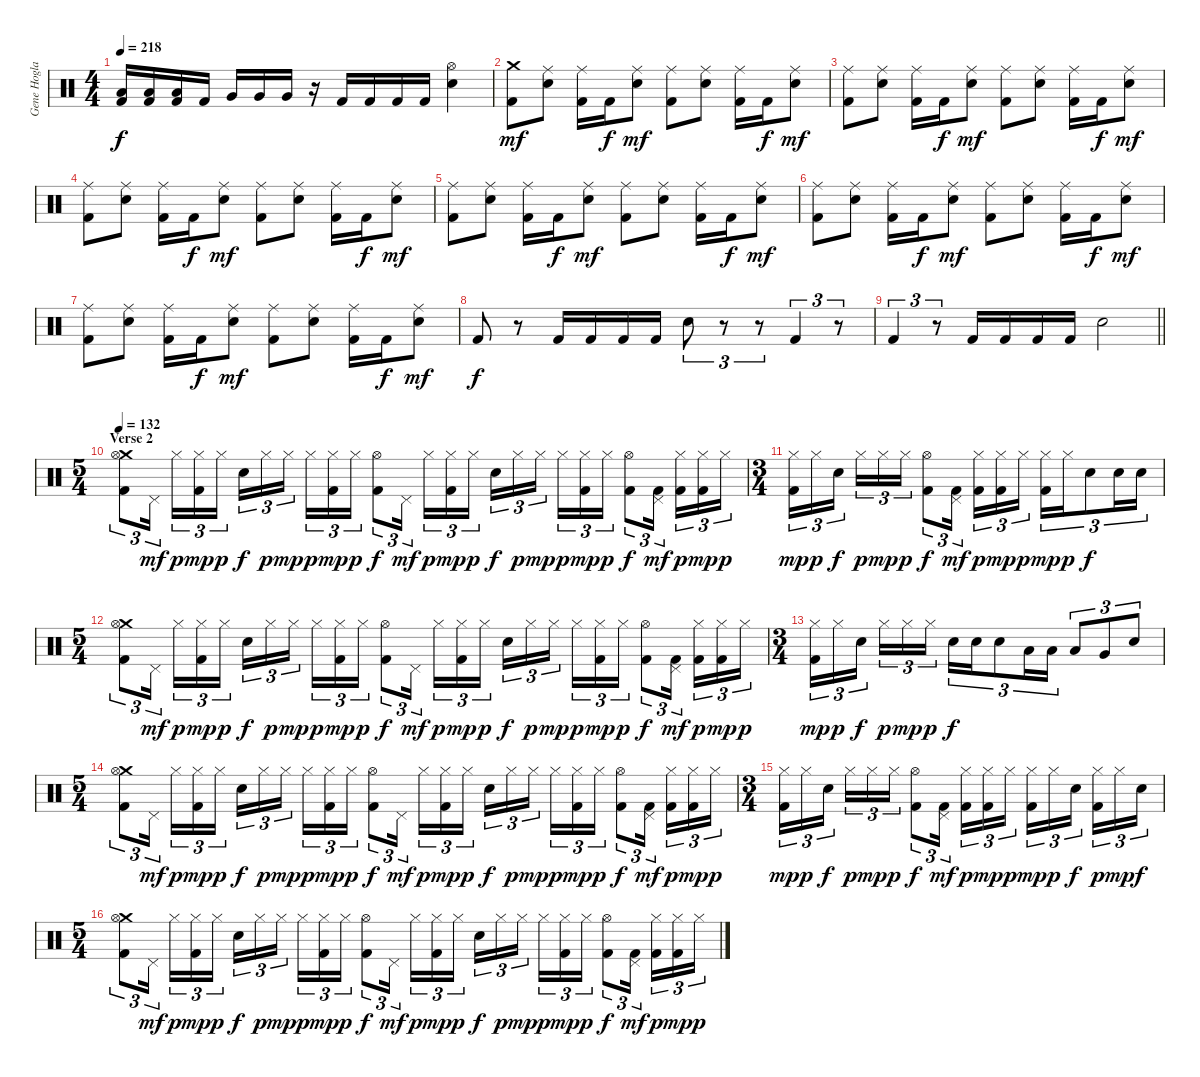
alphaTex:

\track ("Gene Hoglan" "Gene Hogla") {instrument percussion}
\staff {score}
\articulation defaults
\ts (4 4)
\tempo 218
\clef neutral
\ks c
("Low Tom (hit)" "Kick (hit) 2").16{dy f} ("Low Tom (hit)" "Kick (hit) 2").16 ("Low Tom (hit)" "Kick (hit) 2").16 "Kick (hit) 2".16 "Very Low Tom (hit)".16 "Very Low Tom (hit)".16 "Very Low Tom (hit)".16 r.16 "Kick (hit) 2".16 "Kick (hit) 2".16 "Kick (hit) 2".16 "Kick (hit) 2".16 ("Hi-Hat (open)" "Electric Snare (hit)").4 |
("Crash medium (hit)" "Kick (hit) 2").8{dy mf} ("Ride (middle)" "Electric Snare (hit)").8 ("Ride (middle)" "Kick (hit) 2").16 "Kick (hit) 2".16{dy f} ("Ride (middle)" "Electric Snare (hit)").8{dy mf} ("Ride (middle)" "Kick (hit) 2").8 ("Ride (middle)" "Electric Snare (hit)").8 ("Ride (middle)" "Kick (hit) 2").16 "Kick (hit) 2".16{dy f} ("Ride (middle)" "Electric Snare (hit)").8{dy mf} |
("Ride (middle)" "Kick (hit) 2").8 ("Ride (middle)" "Electric Snare (hit)").8 ("Ride (middle)" "Kick (hit) 2").16 "Kick (hit) 2".16{dy f} ("Ride (middle)" "Electric Snare (hit)").8{dy mf} ("Ride (middle)" "Kick (hit) 2").8 ("Ride (middle)" "Electric Snare (hit)").8 ("Ride (middle)" "Kick (hit) 2").16 "Kick (hit) 2".16{dy f} ("Ride (middle)" "Electric Snare (hit)").8{dy mf} |
("Ride (middle)" "Kick (hit) 2").8 ("Ride (middle)" "Electric Snare (hit)").8 ("Ride (middle)" "Kick (hit) 2").16 "Kick (hit) 2".16{dy f} ("Ride (middle)" "Electric Snare (hit)").8{dy mf} ("Ride (middle)" "Kick (hit) 2").8 ("Ride (middle)" "Electric Snare (hit)").8 ("Ride (middle)" "Kick (hit) 2").16 "Kick (hit) 2".16{dy f} ("Ride (middle)" "Electric Snare (hit)").8{dy mf} |
("Ride (middle)" "Kick (hit) 2").8 ("Ride (middle)" "Electric Snare (hit)").8 ("Ride (middle)" "Kick (hit) 2").16 "Kick (hit) 2".16{dy f} ("Ride (middle)" "Electric Snare (hit)").8{dy mf} ("Ride (middle)" "Kick (hit) 2").8 ("Ride (middle)" "Electric Snare (hit)").8 ("Ride (middle)" "Kick (hit) 2").16 "Kick (hit) 2".16{dy f} ("Ride (middle)" "Electric Snare (hit)").8{dy mf} |
("Ride (middle)" "Kick (hit) 2").8 ("Ride (middle)" "Electric Snare (hit)").8 ("Ride (middle)" "Kick (hit) 2").16 "Kick (hit) 2".16{dy f} ("Ride (middle)" "Electric Snare (hit)").8{dy mf} ("Ride (middle)" "Kick (hit) 2").8 ("Ride (middle)" "Electric Snare (hit)").8 ("Ride (middle)" "Kick (hit) 2").16 "Kick (hit) 2".16{dy f} ("Ride (middle)" "Electric Snare (hit)").8{dy mf} |
("Ride (middle)" "Kick (hit) 2").8 ("Ride (middle)" "Electric Snare (hit)").8 ("Ride (middle)" "Kick (hit) 2").16 "Kick (hit) 2".16{dy f} ("Ride (middle)" "Electric Snare (hit)").8{dy mf} ("Ride (middle)" "Kick (hit) 2").8 ("Ride (middle)" "Electric Snare (hit)").8 ("Ride (middle)" "Kick (hit) 2").16 "Kick (hit) 2".16{dy f} ("Ride (middle)" "Electric Snare (hit)").8{dy mf} |
"Kick (hit) 2".8{dy f} r.8 "Kick (hit) 2".16 "Kick (hit) 2".16 "Kick (hit) 2".16 "Kick (hit) 2".16 "Electric Snare (hit)".8{tu (3 2)} r.8{tu (3 2)} r.8{tu (3 2)} "Kick (hit) 2".4{tu (3 2)} r.8{tu (3 2)} |
\barLineRight lightlight "Kick (hit) 2".4{tu (3 2)}
r.8{tu (3 2)} "Kick (hit) 2".16 "Kick (hit) 2".16 "Kick (hit) 2".16 "Kick (hit) 2".16 "Electric Snare (hit)".2 |
\ts (5 4)
\section ("" "Verse 2")
\tempo 132
("Crash medium (hit)" "Hi-Hat (open)" "Kick (hit) 2").8{tu (3 2)} "Pedal Hi-Hat (hit)".16{tu (3 2) dy mf beam splitsecondary} "Hi-Hat (closed)".16{tu (3 2) dy p} ("Hi-Hat (closed)" "Kick (hit) 2").16{tu (3 2) dy mp} "Hi-Hat (closed)".16{tu (3 2) dy p} "Electric Snare (hit)".16{tu (3 2) dy f} "Hi-Hat (closed)".16{tu (3 2) dy p} "Hi-Hat (closed)".16{tu (3 2) dy mp beam splitsecondary} "Hi-Hat (closed)".16{tu (3 2) dy p} ("Hi-Hat (closed)" "Kick (hit) 2").16{tu (3 2) dy mp} "Hi-Hat (closed)".16{tu (3 2) dy p} ("Hi-Hat (open)" "Kick (hit) 2").8{tu (3 2) dy f} "Pedal Hi-Hat (hit)".16{tu (3 2) dy mf beam splitsecondary} "Hi-Hat (closed)".16{tu (3 2) dy p} ("Hi-Hat (closed)" "Kick (hit) 2").16{tu (3 2) dy mp} "Hi-Hat (closed)".16{tu (3 2) dy p} "Electric Snare (hit)".16{tu (3 2) dy f} "Hi-Hat (closed)".16{tu (3 2) dy p} "Hi-Hat (closed)".16{tu (3 2) dy mp beam splitsecondary} "Hi-Hat (closed)".16{tu (3 2) dy p} ("Hi-Hat (closed)" "Kick (hit) 2").16{tu (3 2) dy mp} "Hi-Hat (closed)".16{tu (3 2) dy p} ("Hi-Hat (open)" "Kick (hit) 2").8{tu (3 2) dy f} ("Pedal Hi-Hat (hit)" "Kick (hit) 2").16{tu (3 2) dy mf beam splitsecondary} ("Hi-Hat (closed)" "Kick (hit) 2").16{tu (3 2) dy p} ("Hi-Hat (closed)" "Kick (hit) 2").16{tu (3 2) dy mp} "Hi-Hat (closed)".16{tu (3 2) dy p} |
\ts (3 4)
("Hi-Hat (closed)" "Kick (hit) 2").16{tu (3 2) dy mp} "Hi-Hat (closed)".16{tu (3 2) dy p} "Electric Snare (hit)".16{tu (3 2) dy f beam splitsecondary} "Hi-Hat (closed)".16{tu (3 2) dy p} "Hi-Hat (closed)".16{tu (3 2) dy mp} "Hi-Hat (closed)".16{tu (3 2) dy p} ("Hi-Hat (open)" "Kick (hit) 2").8{tu (3 2) dy f} ("Pedal Hi-Hat (hit)" "Kick (hit) 2").16{tu (3 2) dy mf beam splitsecondary} ("Hi-Hat (closed)" "Kick (hit) 2").16{tu (3 2) dy p} ("Hi-Hat (closed)" "Kick (hit) 2").16{tu (3 2) dy mp} "Hi-Hat (closed)".16{tu (3 2) dy p} ("Hi-Hat (closed)" "Kick (hit) 2").16{tu (3 2) dy mp} "Hi-Hat (closed)".16{tu (3 2) dy p} "Electric Snare (hit)".8{tu (3 2) dy f} "Electric Snare (hit)".16{tu (3 2)} "Electric Snare (hit)".16{tu (3 2)} |
\ts (5 4)
("Crash medium (hit)" "Hi-Hat (open)" "Kick (hit) 2").8{tu (3 2)} "Pedal Hi-Hat (hit)".16{tu (3 2) dy mf beam splitsecondary} "Hi-Hat (closed)".16{tu (3 2) dy p} ("Hi-Hat (closed)" "Kick (hit) 2").16{tu (3 2) dy mp} "Hi-Hat (closed)".16{tu (3 2) dy p} "Electric Snare (hit)".16{tu (3 2) dy f} "Hi-Hat (closed)".16{tu (3 2) dy p} "Hi-Hat (closed)".16{tu (3 2) dy mp beam splitsecondary} "Hi-Hat (closed)".16{tu (3 2) dy p} ("Hi-Hat (closed)" "Kick (hit) 2").16{tu (3 2) dy mp} "Hi-Hat (closed)".16{tu (3 2) dy p} ("Hi-Hat (open)" "Kick (hit) 2").8{tu (3 2) dy f} "Pedal Hi-Hat (hit)".16{tu (3 2) dy mf beam splitsecondary} "Hi-Hat (closed)".16{tu (3 2) dy p} ("Hi-Hat (closed)" "Kick (hit) 2").16{tu (3 2) dy mp} "Hi-Hat (closed)".16{tu (3 2) dy p} "Electric Snare (hit)".16{tu (3 2) dy f} "Hi-Hat (closed)".16{tu (3 2) dy p} "Hi-Hat (closed)".16{tu (3 2) dy mp beam splitsecondary} "Hi-Hat (closed)".16{tu (3 2) dy p} ("Hi-Hat (closed)" "Kick (hit) 2").16{tu (3 2) dy mp} "Hi-Hat (closed)".16{tu (3 2) dy p} ("Hi-Hat (open)" "Kick (hit) 2").8{tu (3 2) dy f} ("Pedal Hi-Hat (hit)" "Kick (hit) 2").16{tu (3 2) dy mf beam splitsecondary} ("Hi-Hat (closed)" "Kick (hit) 2").16{tu (3 2) dy p} ("Hi-Hat (closed)" "Kick (hit) 2").16{tu (3 2) dy mp} "Hi-Hat (closed)".16{tu (3 2) dy p} |
\ts (3 4)
("Hi-Hat (closed)" "Kick (hit) 2").16{tu (3 2) dy mp} "Hi-Hat (closed)".16{tu (3 2) dy p} "Electric Snare (hit)".16{tu (3 2) dy f beam splitsecondary} "Hi-Hat (closed)".16{tu (3 2) dy p} "Hi-Hat (closed)".16{tu (3 2) dy mp} "Hi-Hat (closed)".16{tu (3 2) dy p} "Electric Snare (hit)".16{tu (3 2) dy f} "Electric Snare (hit)".16{tu (3 2)} "Electric Snare (hit)".8{tu (3 2)} "Low Tom (hit)".16{tu (3 2)} "Low Tom (hit)".16{tu (3 2)} "Low Tom (hit)".8{tu (3 2)} "Very Low Tom (hit)".8{tu (3 2)} "Electric Snare (hit)".8{tu (3 2)} |
\ts (5 4)
("Crash medium (hit)" "Hi-Hat (open)" "Kick (hit) 2").8{tu (3 2)} "Pedal Hi-Hat (hit)".16{tu (3 2) dy mf beam splitsecondary} "Hi-Hat (closed)".16{tu (3 2) dy p} ("Hi-Hat (closed)" "Kick (hit) 2").16{tu (3 2) dy mp} "Hi-Hat (closed)".16{tu (3 2) dy p} "Electric Snare (hit)".16{tu (3 2) dy f} "Hi-Hat (closed)".16{tu (3 2) dy p} "Hi-Hat (closed)".16{tu (3 2) dy mp beam splitsecondary} "Hi-Hat (closed)".16{tu (3 2) dy p} ("Hi-Hat (closed)" "Kick (hit) 2").16{tu (3 2) dy mp} "Hi-Hat (closed)".16{tu (3 2) dy p} ("Hi-Hat (open)" "Kick (hit) 2").8{tu (3 2) dy f} "Pedal Hi-Hat (hit)".16{tu (3 2) dy mf beam splitsecondary} "Hi-Hat (closed)".16{tu (3 2) dy p} ("Hi-Hat (closed)" "Kick (hit) 2").16{tu (3 2) dy mp} "Hi-Hat (closed)".16{tu (3 2) dy p} "Electric Snare (hit)".16{tu (3 2) dy f} "Hi-Hat (closed)".16{tu (3 2) dy p} "Hi-Hat (closed)".16{tu (3 2) dy mp beam splitsecondary} "Hi-Hat (closed)".16{tu (3 2) dy p} ("Hi-Hat (closed)" "Kick (hit) 2").16{tu (3 2) dy mp} "Hi-Hat (closed)".16{tu (3 2) dy p} ("Hi-Hat (open)" "Kick (hit) 2").8{tu (3 2) dy f} ("Pedal Hi-Hat (hit)" "Kick (hit) 2").16{tu (3 2) dy mf beam splitsecondary} ("Hi-Hat (closed)" "Kick (hit) 2").16{tu (3 2) dy p} ("Hi-Hat (closed)" "Kick (hit) 2").16{tu (3 2) dy mp} "Hi-Hat (closed)".16{tu (3 2) dy p} |
\ts (3 4)
("Hi-Hat (closed)" "Kick (hit) 2").16{tu (3 2) dy mp} "Hi-Hat (closed)".16{tu (3 2) dy p} "Electric Snare (hit)".16{tu (3 2) dy f beam splitsecondary} "Hi-Hat (closed)".16{tu (3 2) dy p} "Hi-Hat (closed)".16{tu (3 2) dy mp} "Hi-Hat (closed)".16{tu (3 2) dy p} ("Hi-Hat (open)" "Kick (hit) 2").8{tu (3 2) dy f} ("Pedal Hi-Hat (hit)" "Kick (hit) 2").16{tu (3 2) dy mf beam splitsecondary} ("Hi-Hat (closed)" "Kick (hit) 2").16{tu (3 2) dy p} ("Hi-Hat (closed)" "Kick (hit) 2").16{tu (3 2) dy mp} "Hi-Hat (closed)".16{tu (3 2) dy p} ("Hi-Hat (closed)" "Kick (hit) 2").16{tu (3 2) dy mp} "Hi-Hat (closed)".16{tu (3 2) dy p} "Electric Snare (hit)".16{tu (3 2) dy f beam splitsecondary} ("Hi-Hat (closed)" "Kick (hit) 2").16{tu (3 2) dy p} "Hi-Hat (closed)".16{tu (3 2) dy mp} "Electric Snare (hit)".16{tu (3 2) dy f} |
\ts (5 4)
("Crash medium (hit)" "Hi-Hat (open)" "Kick (hit) 2").8{tu (3 2)} "Pedal Hi-Hat (hit)".16{tu (3 2) dy mf beam splitsecondary} "Hi-Hat (closed)".16{tu (3 2) dy p} ("Hi-Hat (closed)" "Kick (hit) 2").16{tu (3 2) dy mp} "Hi-Hat (closed)".16{tu (3 2) dy p} "Electric Snare (hit)".16{tu (3 2) dy f} "Hi-Hat (closed)".16{tu (3 2) dy p} "Hi-Hat (closed)".16{tu (3 2) dy mp beam splitsecondary} "Hi-Hat (closed)".16{tu (3 2) dy p} ("Hi-Hat (closed)" "Kick (hit) 2").16{tu (3 2) dy mp} "Hi-Hat (closed)".16{tu (3 2) dy p} ("Hi-Hat (open)" "Kick (hit) 2").8{tu (3 2) dy f} "Pedal Hi-Hat (hit)".16{tu (3 2) dy mf beam splitsecondary} "Hi-Hat (closed)".16{tu (3 2) dy p} ("Hi-Hat (closed)" "Kick (hit) 2").16{tu (3 2) dy mp} "Hi-Hat (closed)".16{tu (3 2) dy p} "Electric Snare (hit)".16{tu (3 2) dy f} "Hi-Hat (closed)".16{tu (3 2) dy p} "Hi-Hat (closed)".16{tu (3 2) dy mp beam splitsecondary} "Hi-Hat (closed)".16{tu (3 2) dy p} ("Hi-Hat (closed)" "Kick (hit) 2").16{tu (3 2) dy mp} "Hi-Hat (closed)".16{tu (3 2) dy p} ("Hi-Hat (open)" "Kick (hit) 2").8{tu (3 2) dy f} ("Pedal Hi-Hat (hit)" "Kick (hit) 2").16{tu (3 2) dy mf beam splitsecondary} ("Hi-Hat (closed)" "Kick (hit) 2").16{tu (3 2) dy p} ("Hi-Hat (closed)" "Kick (hit) 2").16{tu (3 2) dy mp} "Hi-Hat (closed)".16{tu (3 2) dy p}
